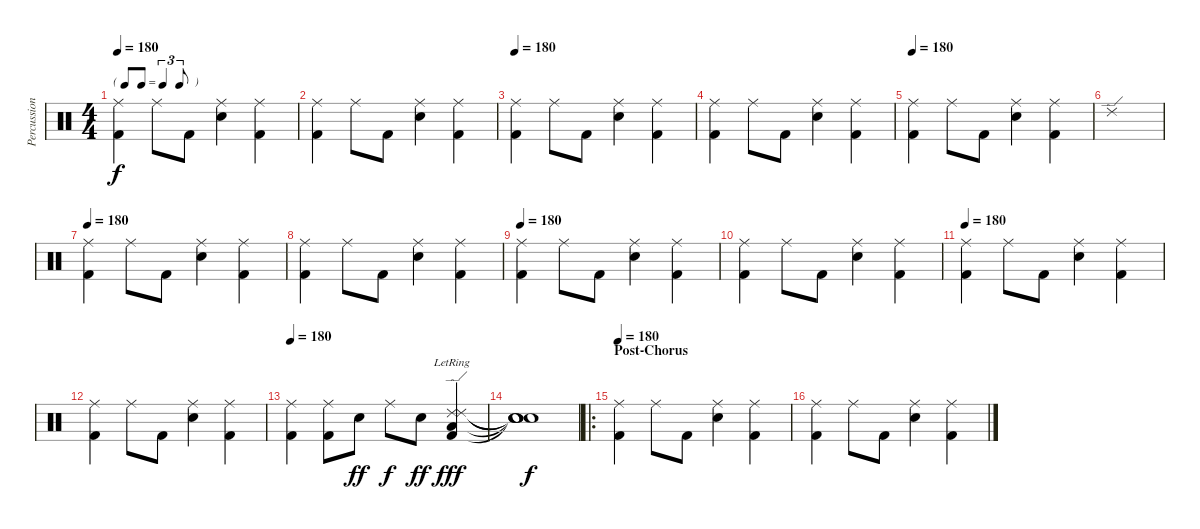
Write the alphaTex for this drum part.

\track ("Percussion" "Percussion") {instrument percussion}
\staff {score}
\articulation defaults
\ts (4 4)
\tf triplet8th
\tempo 180
\clef neutral
\ks c
("Ride (middle)" "Kick (hit) 2").4{dy f} "Ride (middle)".8 "Kick (hit) 2".8 ("Ride (middle)" "Electric Snare (hit)").4 ("Ride (middle)" "Kick (hit) 2").4 |
("Ride (middle)" "Kick (hit) 2").4 "Ride (middle)".8 "Kick (hit) 2".8 ("Ride (middle)" "Electric Snare (hit)").4 ("Ride (middle)" "Kick (hit) 2").4 |
\tempo 180
("Ride (middle)" "Kick (hit) 2").4 "Ride (middle)".8 "Kick (hit) 2".8 ("Ride (middle)" "Electric Snare (hit)").4 ("Ride (middle)" "Kick (hit) 2").4 |
("Ride (middle)" "Kick (hit) 2").4 "Ride (middle)".8 "Kick (hit) 2".8 ("Ride (middle)" "Electric Snare (hit)").4 ("Ride (middle)" "Kick (hit) 2").4 |
\tempo 180
("Ride (middle)" "Kick (hit) 2").4 "Ride (middle)".8 "Kick (hit) 2".8 ("Ride (middle)" "Electric Snare (hit)").4 ("Ride (middle)" "Kick (hit) 2").4 |
"Ride (edge) 2".1 |
\tempo 180
("Ride (middle)" "Kick (hit) 2").4 "Ride (middle)".8 "Kick (hit) 2".8 ("Ride (middle)" "Electric Snare (hit)").4 ("Ride (middle)" "Kick (hit) 2").4 |
("Ride (middle)" "Kick (hit) 2").4 "Ride (middle)".8 "Kick (hit) 2".8 ("Ride (middle)" "Electric Snare (hit)").4 ("Ride (middle)" "Kick (hit) 2").4 |
\tempo 180
("Ride (middle)" "Kick (hit) 2").4 "Ride (middle)".8 "Kick (hit) 2".8 ("Ride (middle)" "Electric Snare (hit)").4 ("Ride (middle)" "Kick (hit) 2").4 |
("Ride (middle)" "Kick (hit) 2").4 "Ride (middle)".8 "Kick (hit) 2".8 ("Ride (middle)" "Electric Snare (hit)").4 ("Ride (middle)" "Kick (hit) 2").4 |
\tempo 180
("Ride (middle)" "Kick (hit) 2").4 "Ride (middle)".8 "Kick (hit) 2".8 ("Ride (middle)" "Electric Snare (hit)").4 ("Ride (middle)" "Kick (hit) 2").4 |
("Ride (middle)" "Kick (hit) 2").4 "Ride (middle)".8 "Kick (hit) 2".8 ("Ride (middle)" "Electric Snare (hit)").4 ("Ride (middle)" "Kick (hit) 2").4 |
\tempo 180
("Ride (middle)" "Kick (hit) 2").4 ("Ride (middle)" "Kick (hit) 2").8 "Electric Snare (hit)".8{dy ff} "Ride (middle)".8{dy f} "Electric Snare (hit)".8{dy ff} ("Ride (edge) 2"{lr} "Ride (edge) 2"{lr} "Low Floor Tom (hit)" "Kick (hit) 2").4{dy fff} |
("Snare (hit)"{t} "Snare (hit)"{t} "Snare (hit)"{t} "Snare (hit)"{t}).1{dy f} |
\ro
\section ("" "Post-Chorus")
\tempo 180
("Ride (middle)" "Kick (hit) 2").4 "Ride (middle)".8 "Kick (hit) 2".8 ("Ride (middle)" "Electric Snare (hit)").4 ("Ride (middle)" "Kick (hit) 2").4 |
("Ride (middle)" "Kick (hit) 2").4 "Ride (middle)".8 "Kick (hit) 2".8 ("Ride (middle)" "Electric Snare (hit)").4 ("Ride (middle)" "Kick (hit) 2").4
